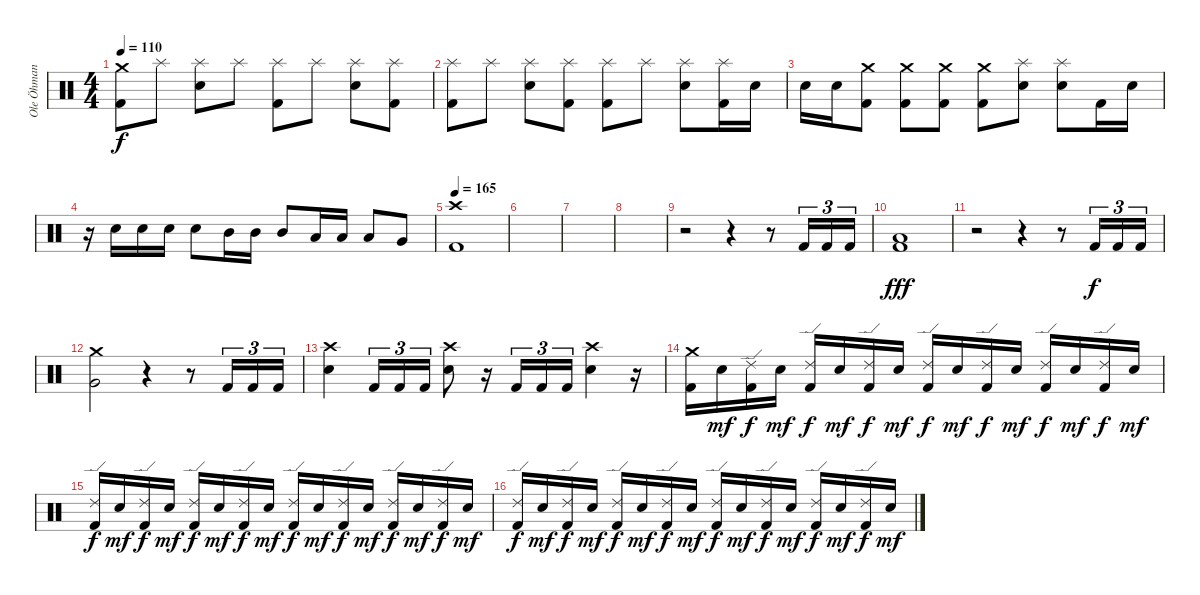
\track ("Ole Öhman" "Ole Öhman") {instrument percussion}
\staff {score}
\articulation defaults
\ts (4 4)
\tempo 110
\clef neutral
\ks c
("Crash medium (hit)" "Kick (hit) 2").8{dy f} "Splash (hit)".8 ("Splash (hit)" "Electric Snare (hit)").8 "Splash (hit)".8 ("Splash (hit)" "Kick (hit) 2").8 "Splash (hit)".8 ("Splash (hit)" "Electric Snare (hit)").8 ("Splash (hit)" "Kick (hit) 2").8 |
("Splash (hit)" "Kick (hit) 2").8 "Splash (hit)".8 ("Splash (hit)" "Electric Snare (hit)").8 ("Splash (hit)" "Kick (hit) 2").8 ("Splash (hit)" "Kick (hit) 2").8 "Splash (hit)".8 ("Splash (hit)" "Electric Snare (hit)").8 ("Splash (hit)" "Kick (hit) 2").16 "Electric Snare (hit)".16 |
"Electric Snare (hit)".16 "Electric Snare (hit)".16 ("Crash medium (hit)" "Kick (hit) 2").8 ("Crash medium (hit)" "Kick (hit) 2").8 ("Crash medium (hit)" "Kick (hit) 2").8 ("Crash medium (hit)" "Kick (hit) 2").8 ("Splash (hit)" "Electric Snare (hit)").8 ("Splash (hit)" "Electric Snare (hit)").8 "Kick (hit) 2".16 "Electric Snare (hit)".16 |
r.16 "Electric Snare (hit)".16 "Electric Snare (hit)".16 "Electric Snare (hit)".16 "Electric Snare (hit)".8 "Mid Tom (hit)".16 "Mid Tom (hit)".16 "Mid Tom (hit)".8 "Low Tom (hit)".16 "Low Tom (hit)".16 "Low Tom (hit)".8 "Very Low Tom (hit)".8 |
\tempo 165
("Crash high (hit)" "Kick (hit) 2").1 |
|
|
|
r.2 r.4 r.8 "Kick (hit) 2".16{tu (3 2)} "Kick (hit) 2".16{tu (3 2)} "Kick (hit) 2".16{tu (3 2)} |
("Kick (hit) 2" "Low Floor Tom (hit)").1{dy fff} |
r.2 r.4 r.8 "Kick (hit) 2".16{tu (3 2) dy f} "Kick (hit) 2".16{tu (3 2)} "Kick (hit) 2".16{tu (3 2)} |
("Crash medium (hit)" "Very Low Tom (hit)").2 r.4 r.8 "Kick (hit) 2".16{tu (3 2)} "Kick (hit) 2".16{tu (3 2)} "Kick (hit) 2".16{tu (3 2)} |
("Crash high (hit)" "Electric Snare (hit)").4 "Kick (hit) 2".16{tu (3 2)} "Kick (hit) 2".16{tu (3 2)} "Kick (hit) 2".16{tu (3 2)} ("Crash high (hit)" "Electric Snare (hit)").8 r.16 "Kick (hit) 2".16{tu (3 2)} "Kick (hit) 2".16{tu (3 2)} "Kick (hit) 2".16{tu (3 2)} ("Crash high (hit)" "Electric Snare (hit)").4 r.16 |
("Crash medium (hit)" "Kick (hit) 2").16 "Electric Snare (hit)".16{dy mf} ("Ride (edge) 2" "Kick (hit) 2").16{dy f} "Electric Snare (hit)".16{dy mf} ("Ride (edge) 2" "Kick (hit) 2").16{dy f} "Electric Snare (hit)".16{dy mf} ("Ride (edge) 2" "Kick (hit) 2").16{dy f} "Electric Snare (hit)".16{dy mf} ("Ride (edge) 2" "Kick (hit) 2").16{dy f} "Electric Snare (hit)".16{dy mf} ("Ride (edge) 2" "Kick (hit) 2").16{dy f} "Electric Snare (hit)".16{dy mf} ("Ride (edge) 2" "Kick (hit) 2").16{dy f} "Electric Snare (hit)".16{dy mf} ("Ride (edge) 2" "Kick (hit) 2").16{dy f} "Electric Snare (hit)".16{dy mf} |
("Ride (edge) 2" "Kick (hit) 2").16{dy f} "Electric Snare (hit)".16{dy mf} ("Ride (edge) 2" "Kick (hit) 2").16{dy f} "Electric Snare (hit)".16{dy mf} ("Ride (edge) 2" "Kick (hit) 2").16{dy f} "Electric Snare (hit)".16{dy mf} ("Ride (edge) 2" "Kick (hit) 2").16{dy f} "Electric Snare (hit)".16{dy mf} ("Ride (edge) 2" "Kick (hit) 2").16{dy f} "Electric Snare (hit)".16{dy mf} ("Ride (edge) 2" "Kick (hit) 2").16{dy f} "Electric Snare (hit)".16{dy mf} ("Ride (edge) 2" "Kick (hit) 2").16{dy f} "Electric Snare (hit)".16{dy mf} ("Ride (edge) 2" "Kick (hit) 2").16{dy f} "Electric Snare (hit)".16{dy mf} |
("Ride (edge) 2" "Kick (hit) 2").16{dy f} "Electric Snare (hit)".16{dy mf} ("Ride (edge) 2" "Kick (hit) 2").16{dy f} "Electric Snare (hit)".16{dy mf} ("Ride (edge) 2" "Kick (hit) 2").16{dy f} "Electric Snare (hit)".16{dy mf} ("Ride (edge) 2" "Kick (hit) 2").16{dy f} "Electric Snare (hit)".16{dy mf} ("Ride (edge) 2" "Kick (hit) 2").16{dy f} "Electric Snare (hit)".16{dy mf} ("Ride (edge) 2" "Kick (hit) 2").16{dy f} "Electric Snare (hit)".16{dy mf} ("Ride (edge) 2" "Kick (hit) 2").16{dy f} "Electric Snare (hit)".16{dy mf} ("Ride (edge) 2" "Kick (hit) 2").16{dy f} "Electric Snare (hit)".16{dy mf}
